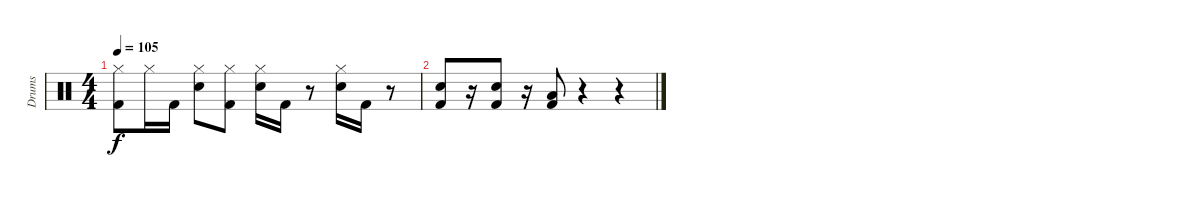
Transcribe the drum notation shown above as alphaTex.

\track ("Drums" "Drums") {instrument percussion}
\staff {score}
\articulation defaults
\ts (4 4)
\tempo 105
\clef neutral
\ks c
("Hi-Hat (closed)" "Kick (hit) 2").8{dy f} "Hi-Hat (closed)".16 "Kick (hit) 2".16 ("Hi-Hat (closed)" "Electric Snare (hit)").8 ("Hi-Hat (closed)" "Kick (hit) 2").8 ("Hi-Hat (closed)" "Electric Snare (hit)").16 "Kick (hit) 2".16 r.8 ("Hi-Hat (closed)" "Snare (hit) 2").16 "Kick (hit) 2".16 r.8 |
("Kick (hit) 2" "Electric Snare (hit)").8 r.16 ("Kick (hit) 2" "Electric Snare (hit)").8 r.16 ("Low Floor Tom (hit)" "Kick (hit) 2").8 r.4 r.4
